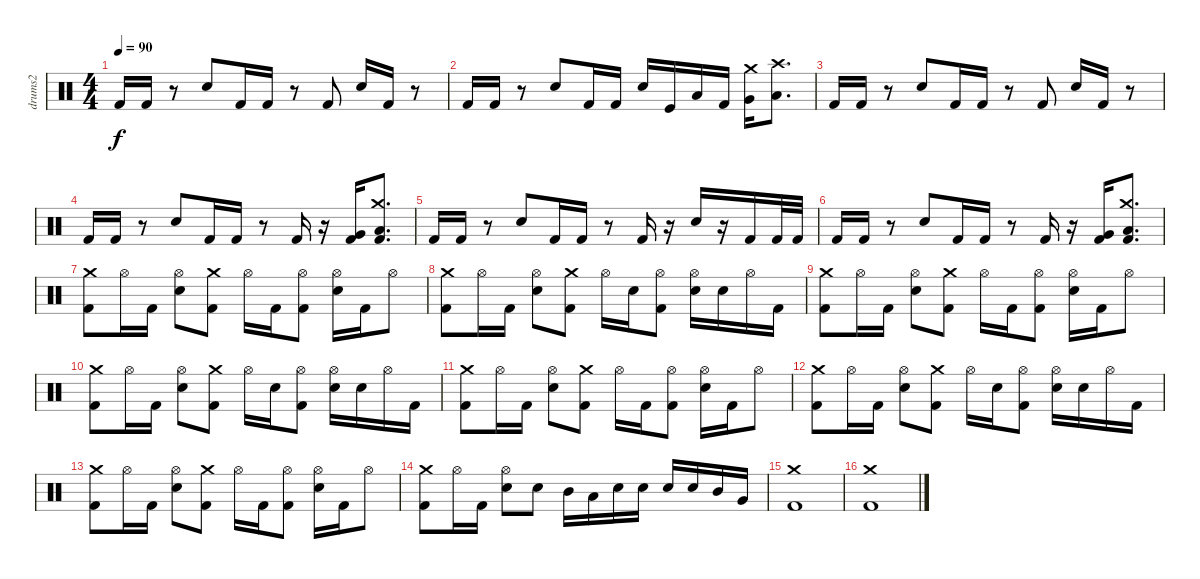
\track ("drums2" "drums2") {instrument percussion}
\staff {score}
\articulation defaults
\ts (4 4)
\tempo 90
\clef neutral
\ks c "Kick (hit) 2".16{dy f} "Kick (hit) 2".16
r.8 "Snare (hit) 2".8 "Kick (hit) 2".16 "Kick (hit) 2".16 r.8 "Kick (hit) 2".8 "Snare (hit) 2".16 "Kick (hit) 2".16 r.8 |
"Kick (hit) 2".16 "Kick (hit) 2".16 r.8 "Snare (hit) 2".8 "Kick (hit) 2".16 "Kick (hit) 2".16 "Snare (hit) 2".16 "Kick (hit)".16 "Low Tom (hit)".16 "Kick (hit) 2".16 ("Crash medium (hit)" "Very Low Tom (hit)").16 ("Crash high (hit)" "Low Floor Tom (hit)").8{d} |
"Kick (hit) 2".16 "Kick (hit) 2".16 r.8 "Snare (hit) 2".8 "Kick (hit) 2".16 "Kick (hit) 2".16 r.8 "Kick (hit) 2".8 "Snare (hit) 2".16 "Kick (hit) 2".16 r.8 |
"Kick (hit) 2".16 "Kick (hit) 2".16 r.8 "Snare (hit) 2".8 "Kick (hit) 2".16 "Kick (hit) 2".16 r.8 "Kick (hit) 2".16 r.16 ("Very Low Tom (hit)" "Kick (hit) 2").16 ("Crash medium (hit)" "Kick (hit) 2" "Low Floor Tom (hit)").8{d} |
"Kick (hit) 2".16 "Kick (hit) 2".16 r.8 "Snare (hit) 2".8 "Kick (hit) 2".16 "Kick (hit) 2".16 r.8 "Kick (hit) 2".16 r.16 "Snare (hit) 2".16 r.16 "Kick (hit) 2".16 "Kick (hit) 2".32 "Kick (hit) 2".32 |
"Kick (hit) 2".16 "Kick (hit) 2".16 r.8 "Snare (hit) 2".8 "Kick (hit) 2".16 "Kick (hit) 2".16 r.8 "Kick (hit) 2".16 r.16 ("Very Low Tom (hit)" "Kick (hit) 2").16 ("Crash medium (hit)" "Kick (hit) 2" "Low Floor Tom (hit)").8{d} |
("Crash medium (hit)" "Kick (hit) 2").8 "Hi-Hat (open)".16 "Kick (hit) 2".16 ("Hi-Hat (open)" "Electric Snare (hit)").8 ("Crash medium (hit)" "Kick (hit) 2").8 "Hi-Hat (open)".16 "Kick (hit) 2".16 ("Hi-Hat (open)" "Kick (hit) 2").8 ("Hi-Hat (open)" "Electric Snare (hit)").16 "Kick (hit) 2".16 "Hi-Hat (open)".8 |
("Crash medium (hit)" "Kick (hit) 2").8 "Hi-Hat (open)".16 "Kick (hit) 2".16 ("Hi-Hat (open)" "Electric Snare (hit)").8 ("Crash medium (hit)" "Kick (hit) 2").8 "Hi-Hat (open)".16 "Electric Snare (hit)".16 ("Hi-Hat (open)" "Kick (hit) 2").8 ("Hi-Hat (open)" "Electric Snare (hit)").16 "Electric Snare (hit)".16 "Hi-Hat (open)".16 "Kick (hit) 2".16 |
("Crash medium (hit)" "Kick (hit) 2").8 "Hi-Hat (open)".16 "Kick (hit) 2".16 ("Hi-Hat (open)" "Electric Snare (hit)").8 ("Crash medium (hit)" "Kick (hit) 2").8 "Hi-Hat (open)".16 "Kick (hit) 2".16 ("Hi-Hat (open)" "Kick (hit) 2").8 ("Hi-Hat (open)" "Electric Snare (hit)").16 "Kick (hit) 2".16 "Hi-Hat (open)".8 |
("Crash medium (hit)" "Kick (hit) 2").8 "Hi-Hat (open)".16 "Kick (hit) 2".16 ("Hi-Hat (open)" "Electric Snare (hit)").8 ("Crash medium (hit)" "Kick (hit) 2").8 "Hi-Hat (open)".16 "Electric Snare (hit)".16 ("Hi-Hat (open)" "Kick (hit) 2").8 ("Hi-Hat (open)" "Electric Snare (hit)").16 "Electric Snare (hit)".16 "Hi-Hat (open)".16 "Kick (hit) 2".16 |
("Crash medium (hit)" "Kick (hit) 2").8 "Hi-Hat (open)".16 "Kick (hit) 2".16 ("Hi-Hat (open)" "Electric Snare (hit)").8 ("Crash medium (hit)" "Kick (hit) 2").8 "Hi-Hat (open)".16 "Kick (hit) 2".16 ("Hi-Hat (open)" "Kick (hit) 2").8 ("Hi-Hat (open)" "Electric Snare (hit)").16 "Kick (hit) 2".16 "Hi-Hat (open)".8 |
("Crash medium (hit)" "Kick (hit) 2").8 "Hi-Hat (open)".16 "Kick (hit) 2".16 ("Hi-Hat (open)" "Electric Snare (hit)").8 ("Crash medium (hit)" "Kick (hit) 2").8 "Hi-Hat (open)".16 "Electric Snare (hit)".16 ("Hi-Hat (open)" "Kick (hit) 2").8 ("Hi-Hat (open)" "Electric Snare (hit)").16 "Electric Snare (hit)".16 "Hi-Hat (open)".16 "Kick (hit) 2".16 |
("Crash medium (hit)" "Kick (hit) 2").8 "Hi-Hat (open)".16 "Kick (hit) 2".16 ("Hi-Hat (open)" "Electric Snare (hit)").8 ("Crash medium (hit)" "Kick (hit) 2").8 "Hi-Hat (open)".16 "Kick (hit) 2".16 ("Hi-Hat (open)" "Kick (hit) 2").8 ("Hi-Hat (open)" "Electric Snare (hit)").16 "Kick (hit) 2".16 "Hi-Hat (open)".8 |
("Crash medium (hit)" "Kick (hit) 2").8 "Hi-Hat (open)".16 "Kick (hit) 2".16 ("Hi-Hat (open)" "Electric Snare (hit)").8 "Electric Snare (hit)".8 "Mid Tom (hit)".16 "Low Tom (hit)".16 "Electric Snare (hit)".16 "Electric Snare (hit)".16 "Electric Snare (hit)".16 "Electric Snare (hit)".16 "Mid Tom (hit)".16 "Very Low Tom (hit)".16 |
("Crash medium (hit)" "Kick (hit) 2").1 |
("Crash medium (hit)" "Kick (hit) 2").1
